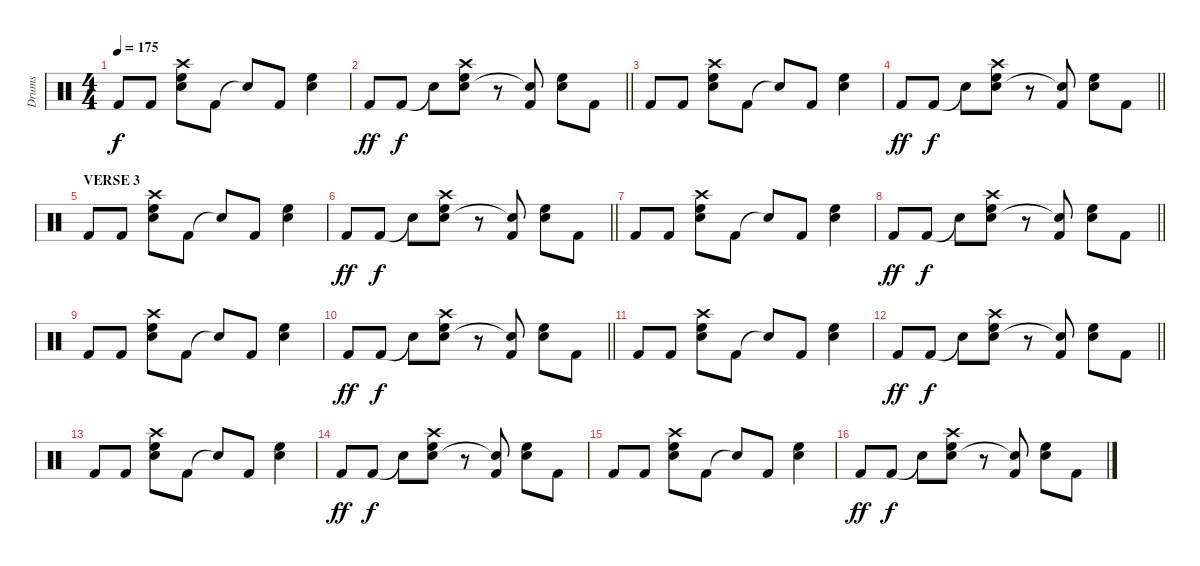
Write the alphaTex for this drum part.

\track ("Drums" "Drums") {instrument percussion}
\staff {score}
\articulation defaults
\ts (4 4)
\tempo 175
\clef neutral
\ks c "Kick (hit) 2".8{dy f} "Kick (hit) 2".8
("High Floor Tom (hit)" "Electric Snare (hit)" "Crash high (hit)").8 "Kick (hit) 2".8 "Snare (hit)"{t}.8 "Kick (hit) 2".8 ("High Floor Tom (hit)" "Electric Snare (hit)").4 |
\barLineRight lightlight "Kick (hit) 2".8{dy ff} "Kick (hit) 2".8{dy f} "Snare (hit)"{t}.8
("High Floor Tom (hit)" "Electric Snare (hit)" "Crash high (hit)").8 r.8 ("Kick (hit) 2" "Snare (hit)"{t}).8 ("High Floor Tom (hit)" "Electric Snare (hit)").8 "Kick (hit) 2".8 |
"Kick (hit) 2".8 "Kick (hit) 2".8 ("High Floor Tom (hit)" "Electric Snare (hit)" "Crash high (hit)").8 "Kick (hit) 2".8 "Snare (hit)"{t}.8 "Kick (hit) 2".8 ("High Floor Tom (hit)" "Electric Snare (hit)").4 |
\barLineRight lightlight "Kick (hit) 2".8{dy ff} "Kick (hit) 2".8{dy f} "Snare (hit)"{t}.8
("High Floor Tom (hit)" "Electric Snare (hit)" "Crash high (hit)").8 r.8 ("Kick (hit) 2" "Snare (hit)"{t}).8 ("High Floor Tom (hit)" "Electric Snare (hit)").8 "Kick (hit) 2".8 |
\section ("" "VERSE 3")
"Kick (hit) 2".8 "Kick (hit) 2".8 ("High Floor Tom (hit)" "Electric Snare (hit)" "Crash high (hit)").8 "Kick (hit) 2".8 "Snare (hit)"{t}.8 "Kick (hit) 2".8 ("High Floor Tom (hit)" "Electric Snare (hit)").4 |
\barLineRight lightlight "Kick (hit) 2".8{dy ff} "Kick (hit) 2".8{dy f} "Snare (hit)"{t}.8
("High Floor Tom (hit)" "Electric Snare (hit)" "Crash high (hit)").8 r.8 ("Kick (hit) 2" "Snare (hit)"{t}).8 ("High Floor Tom (hit)" "Electric Snare (hit)").8 "Kick (hit) 2".8 |
"Kick (hit) 2".8 "Kick (hit) 2".8 ("High Floor Tom (hit)" "Electric Snare (hit)" "Crash high (hit)").8 "Kick (hit) 2".8 "Snare (hit)"{t}.8 "Kick (hit) 2".8 ("High Floor Tom (hit)" "Electric Snare (hit)").4 |
\barLineRight lightlight "Kick (hit) 2".8{dy ff} "Kick (hit) 2".8{dy f} "Snare (hit)"{t}.8
("High Floor Tom (hit)" "Electric Snare (hit)" "Crash high (hit)").8 r.8 ("Kick (hit) 2" "Snare (hit)"{t}).8 ("High Floor Tom (hit)" "Electric Snare (hit)").8 "Kick (hit) 2".8 |
"Kick (hit) 2".8 "Kick (hit) 2".8 ("High Floor Tom (hit)" "Electric Snare (hit)" "Crash high (hit)").8 "Kick (hit) 2".8 "Snare (hit)"{t}.8 "Kick (hit) 2".8 ("High Floor Tom (hit)" "Electric Snare (hit)").4 |
\barLineRight lightlight "Kick (hit) 2".8{dy ff} "Kick (hit) 2".8{dy f} "Snare (hit)"{t}.8
("High Floor Tom (hit)" "Electric Snare (hit)" "Crash high (hit)").8 r.8 ("Kick (hit) 2" "Snare (hit)"{t}).8 ("High Floor Tom (hit)" "Electric Snare (hit)").8 "Kick (hit) 2".8 |
"Kick (hit) 2".8 "Kick (hit) 2".8 ("High Floor Tom (hit)" "Electric Snare (hit)" "Crash high (hit)").8 "Kick (hit) 2".8 "Snare (hit)"{t}.8 "Kick (hit) 2".8 ("High Floor Tom (hit)" "Electric Snare (hit)").4 |
\barLineRight lightlight "Kick (hit) 2".8{dy ff} "Kick (hit) 2".8{dy f} "Snare (hit)"{t}.8
("High Floor Tom (hit)" "Electric Snare (hit)" "Crash high (hit)").8 r.8 ("Kick (hit) 2" "Snare (hit)"{t}).8 ("High Floor Tom (hit)" "Electric Snare (hit)").8 "Kick (hit) 2".8 |
"Kick (hit) 2".8 "Kick (hit) 2".8 ("High Floor Tom (hit)" "Electric Snare (hit)" "Crash high (hit)").8 "Kick (hit) 2".8 "Snare (hit)"{t}.8 "Kick (hit) 2".8 ("High Floor Tom (hit)" "Electric Snare (hit)").4 |
"Kick (hit) 2".8{dy ff} "Kick (hit) 2".8{dy f} "Snare (hit)"{t}.8 ("High Floor Tom (hit)" "Electric Snare (hit)" "Crash high (hit)").8 r.8 ("Kick (hit) 2" "Snare (hit)"{t}).8 ("High Floor Tom (hit)" "Electric Snare (hit)").8 "Kick (hit) 2".8 |
"Kick (hit) 2".8 "Kick (hit) 2".8 ("High Floor Tom (hit)" "Electric Snare (hit)" "Crash high (hit)").8 "Kick (hit) 2".8 "Snare (hit)"{t}.8 "Kick (hit) 2".8 ("High Floor Tom (hit)" "Electric Snare (hit)").4 |
"Kick (hit) 2".8{dy ff} "Kick (hit) 2".8{dy f} "Snare (hit)"{t}.8 ("High Floor Tom (hit)" "Electric Snare (hit)" "Crash high (hit)").8 r.8 ("Kick (hit) 2" "Snare (hit)"{t}).8 ("High Floor Tom (hit)" "Electric Snare (hit)").8 "Kick (hit) 2".8
